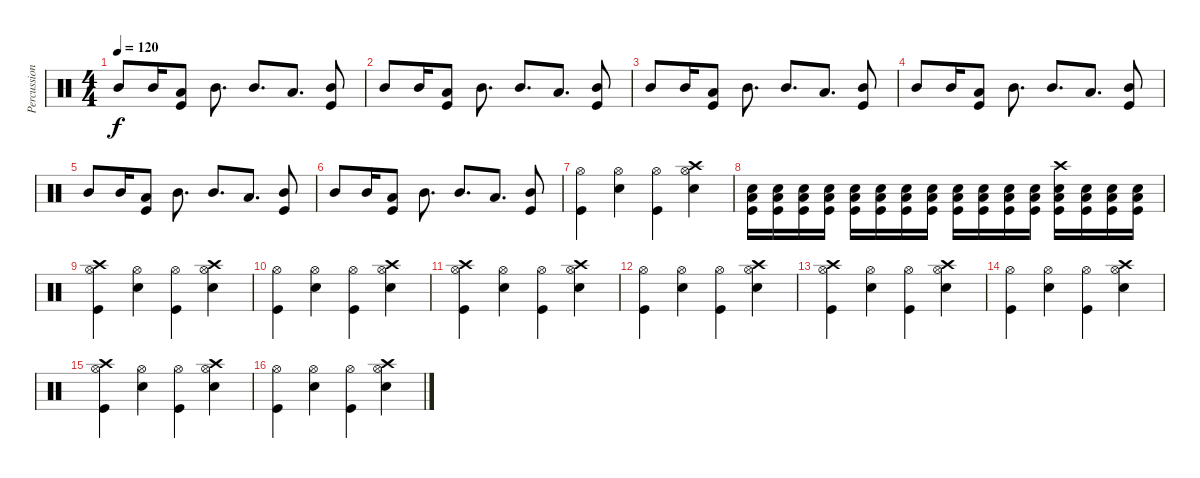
\track ("Percussion" "Percussion") {instrument percussion}
\staff {score}
\articulation defaults
\ts (4 4)
\tempo 120
\clef neutral
\ks c "Mid Tom (hit)".8{dy f} "Mid Tom (hit)".16
("Low Tom (hit)" "Kick (hit)").8 "Mid Tom (hit)".8{d} "Mid Tom (hit)".8{d} "Low Tom (hit)".8{d} ("Mid Tom (hit)" "Kick (hit)").8 |
"Mid Tom (hit)".8 "Mid Tom (hit)".16 ("Low Tom (hit)" "Kick (hit)").8 "Mid Tom (hit)".8{d} "Mid Tom (hit)".8{d} "Low Tom (hit)".8{d} ("Mid Tom (hit)" "Kick (hit)").8 |
"Mid Tom (hit)".8 "Mid Tom (hit)".16 ("Low Tom (hit)" "Kick (hit)").8 "Mid Tom (hit)".8{d} "Mid Tom (hit)".8{d} "Low Tom (hit)".8{d} ("Mid Tom (hit)" "Kick (hit)").8 |
"Mid Tom (hit)".8 "Mid Tom (hit)".16 ("Low Tom (hit)" "Kick (hit)").8 "Mid Tom (hit)".8{d} "Mid Tom (hit)".8{d} "Low Tom (hit)".8{d} ("Mid Tom (hit)" "Kick (hit)").8 |
"Mid Tom (hit)".8 "Mid Tom (hit)".16 ("Low Tom (hit)" "Kick (hit)").8 "Mid Tom (hit)".8{d} "Mid Tom (hit)".8{d} "Low Tom (hit)".8{d} ("Mid Tom (hit)" "Kick (hit)").8 |
"Mid Tom (hit)".8 "Mid Tom (hit)".16 ("Low Tom (hit)" "Kick (hit)").8 "Mid Tom (hit)".8{d} "Mid Tom (hit)".8{d} "Low Tom (hit)".8{d} ("Mid Tom (hit)" "Kick (hit)").8 |
("Hi-Hat (open)" "Kick (hit)").4 ("Hi-Hat (open)" "Snare (hit) 2").4 ("Hi-Hat (open)" "Kick (hit)").4 ("Crash high (hit)" "Hi-Hat (open)" "Snare (hit) 2").4 |
("Low Tom (hit)" "Snare (hit) 2" "Kick (hit)").16 ("Low Tom (hit)" "Snare (hit) 2" "Kick (hit)").16 ("Low Tom (hit)" "Snare (hit) 2" "Kick (hit)").16 ("Low Tom (hit)" "Snare (hit) 2" "Kick (hit)").16 ("Low Tom (hit)" "Snare (hit) 2" "Kick (hit)").16 ("Low Tom (hit)" "Snare (hit) 2" "Kick (hit)").16 ("Low Tom (hit)" "Snare (hit) 2" "Kick (hit)").16 ("Low Tom (hit)" "Snare (hit) 2" "Kick (hit)").16 ("Low Tom (hit)" "Snare (hit) 2" "Kick (hit)").16 ("Low Tom (hit)" "Snare (hit) 2" "Kick (hit)").16 ("Low Tom (hit)" "Snare (hit) 2" "Kick (hit)").16 ("Low Tom (hit)" "Snare (hit) 2" "Kick (hit)").16 ("Crash high (hit)" "Low Tom (hit)" "Snare (hit) 2" "Kick (hit)").16 ("Low Tom (hit)" "Snare (hit) 2" "Kick (hit)").16 ("Low Tom (hit)" "Snare (hit) 2" "Kick (hit)").16 ("Low Tom (hit)" "Snare (hit) 2" "Kick (hit)").16 |
("Crash high (hit)" "Hi-Hat (open)" "Kick (hit)").4 ("Hi-Hat (open)" "Snare (hit) 2").4 ("Hi-Hat (open)" "Kick (hit)").4 ("Crash high (hit)" "Hi-Hat (open)" "Snare (hit) 2").4 |
("Hi-Hat (open)" "Kick (hit)").4 ("Hi-Hat (open)" "Snare (hit) 2").4 ("Hi-Hat (open)" "Kick (hit)").4 ("Crash high (hit)" "Hi-Hat (open)" "Snare (hit) 2").4 |
("Crash high (hit)" "Hi-Hat (open)" "Kick (hit)").4 ("Hi-Hat (open)" "Snare (hit) 2").4 ("Hi-Hat (open)" "Kick (hit)").4 ("Crash high (hit)" "Hi-Hat (open)" "Snare (hit) 2").4 |
("Hi-Hat (open)" "Kick (hit)").4 ("Hi-Hat (open)" "Snare (hit) 2").4 ("Hi-Hat (open)" "Kick (hit)").4 ("Crash high (hit)" "Hi-Hat (open)" "Snare (hit) 2").4 |
("Crash high (hit)" "Hi-Hat (open)" "Kick (hit)").4 ("Hi-Hat (open)" "Snare (hit) 2").4 ("Hi-Hat (open)" "Kick (hit)").4 ("Crash high (hit)" "Hi-Hat (open)" "Snare (hit) 2").4 |
("Hi-Hat (open)" "Kick (hit)").4 ("Hi-Hat (open)" "Snare (hit) 2").4 ("Hi-Hat (open)" "Kick (hit)").4 ("Crash high (hit)" "Hi-Hat (open)" "Snare (hit) 2").4 |
("Crash high (hit)" "Hi-Hat (open)" "Kick (hit)").4 ("Hi-Hat (open)" "Snare (hit) 2").4 ("Hi-Hat (open)" "Kick (hit)").4 ("Crash high (hit)" "Hi-Hat (open)" "Snare (hit) 2").4 |
("Hi-Hat (open)" "Kick (hit)").4 ("Hi-Hat (open)" "Snare (hit) 2").4 ("Hi-Hat (open)" "Kick (hit)").4 ("Crash high (hit)" "Hi-Hat (open)" "Snare (hit) 2").4
